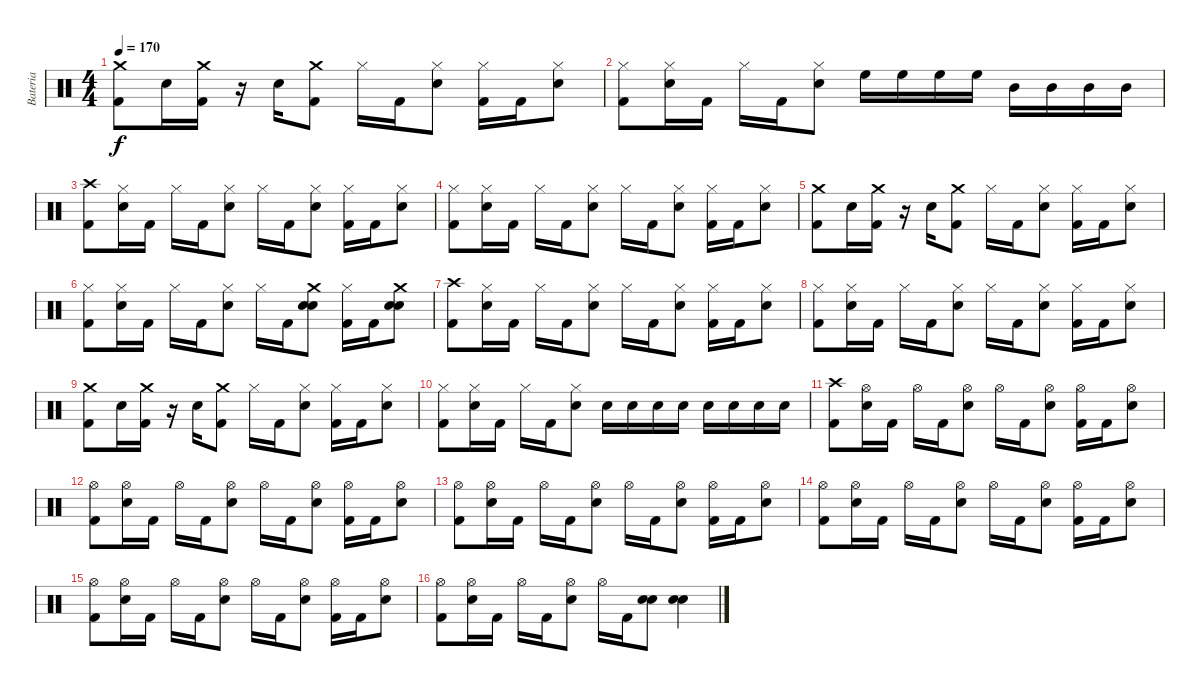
\track ("Bateria" "Bateria") {instrument percussion}
\staff {score}
\articulation defaults
\ts (4 4)
\tempo 170
\clef neutral
\ks c
("Crash medium (hit)" "Kick (hit) 2").8{dy f} "Snare (hit) 2".16 ("Crash medium (hit)" "Kick (hit) 2").16 r.16 "Snare (hit) 2".16 ("Crash medium (hit)" "Kick (hit) 2").8 "Hi-Hat (closed)".16 "Kick (hit) 2".16 ("Hi-Hat (closed)" "Snare (hit) 2").8 ("Hi-Hat (closed)" "Kick (hit) 2").16 "Kick (hit) 2".16 ("Hi-Hat (closed)" "Snare (hit) 2").8 |
("Hi-Hat (closed)" "Kick (hit) 2").8 ("Hi-Hat (closed)" "Snare (hit) 2").16 "Kick (hit) 2".16 "Hi-Hat (closed)".16 "Kick (hit) 2".16 ("Hi-Hat (closed)" "Snare (hit) 2").8 "High Floor Tom (hit)".16 "High Floor Tom (hit)".16 "High Floor Tom (hit)".16 "High Floor Tom (hit)".16 "Mid Tom (hit)".16 "Mid Tom (hit)".16 "Mid Tom (hit)".16 "Mid Tom (hit)".16 |
("Crash high (hit)" "Kick (hit) 2").8 ("Hi-Hat (closed)" "Snare (hit) 2").16 "Kick (hit) 2".16 "Hi-Hat (closed)".16 "Kick (hit) 2".16 ("Hi-Hat (closed)" "Snare (hit) 2").8 "Hi-Hat (closed)".16 "Kick (hit) 2".16 ("Hi-Hat (closed)" "Snare (hit) 2").8 ("Hi-Hat (closed)" "Kick (hit) 2").16 "Kick (hit) 2".16 ("Hi-Hat (closed)" "Snare (hit) 2").8 |
("Hi-Hat (closed)" "Kick (hit) 2").8 ("Hi-Hat (closed)" "Snare (hit) 2").16 "Kick (hit) 2".16 "Hi-Hat (closed)".16 "Kick (hit) 2".16 ("Hi-Hat (closed)" "Snare (hit) 2").8 "Hi-Hat (closed)".16 "Kick (hit) 2".16 ("Hi-Hat (closed)" "Snare (hit) 2").8 ("Hi-Hat (closed)" "Kick (hit) 2").16 "Kick (hit) 2".16 ("Hi-Hat (closed)" "Snare (hit) 2").8 |
("Crash medium (hit)" "Kick (hit) 2").8 "Snare (hit) 2".16 ("Crash medium (hit)" "Kick (hit) 2").16 r.16 "Snare (hit) 2".16 ("Crash medium (hit)" "Kick (hit) 2").8 "Hi-Hat (closed)".16 "Kick (hit) 2".16 ("Hi-Hat (closed)" "Snare (hit) 2").8 ("Hi-Hat (closed)" "Kick (hit) 2").16 "Kick (hit) 2".16 ("Hi-Hat (closed)" "Snare (hit) 2").8 |
("Hi-Hat (closed)" "Kick (hit) 2").8 ("Hi-Hat (closed)" "Snare (hit) 2").16 "Kick (hit) 2".16 "Hi-Hat (closed)".16 "Kick (hit) 2".16 ("Hi-Hat (closed)" "Snare (hit) 2").8 "Hi-Hat (closed)".16 "Kick (hit) 2".16 ("Crash medium (hit)" "Electric Snare (hit)" "Snare (hit) 2").8 ("Hi-Hat (closed)" "Kick (hit) 2").16 "Kick (hit) 2".16 ("Crash medium (hit)" "Electric Snare (hit)" "Snare (hit) 2").8 |
("Crash high (hit)" "Kick (hit) 2").8 ("Hi-Hat (closed)" "Snare (hit) 2").16 "Kick (hit) 2".16 "Hi-Hat (closed)".16 "Kick (hit) 2".16 ("Hi-Hat (closed)" "Snare (hit) 2").8 "Hi-Hat (closed)".16 "Kick (hit) 2".16 ("Hi-Hat (closed)" "Snare (hit) 2").8 ("Hi-Hat (closed)" "Kick (hit) 2").16 "Kick (hit) 2".16 ("Hi-Hat (closed)" "Snare (hit) 2").8 |
("Hi-Hat (closed)" "Kick (hit) 2").8 ("Hi-Hat (closed)" "Snare (hit) 2").16 "Kick (hit) 2".16 "Hi-Hat (closed)".16 "Kick (hit) 2".16 ("Hi-Hat (closed)" "Snare (hit) 2").8 "Hi-Hat (closed)".16 "Kick (hit) 2".16 ("Hi-Hat (closed)" "Snare (hit) 2").8 ("Hi-Hat (closed)" "Kick (hit) 2").16 "Kick (hit) 2".16 ("Hi-Hat (closed)" "Snare (hit) 2").8 |
("Crash medium (hit)" "Kick (hit) 2").8 "Snare (hit) 2".16 ("Crash medium (hit)" "Kick (hit) 2").16 r.16 "Snare (hit) 2".16 ("Crash medium (hit)" "Kick (hit) 2").8 "Hi-Hat (closed)".16 "Kick (hit) 2".16 ("Hi-Hat (closed)" "Snare (hit) 2").8 ("Hi-Hat (closed)" "Kick (hit) 2").16 "Kick (hit) 2".16 ("Hi-Hat (closed)" "Snare (hit) 2").8 |
("Hi-Hat (closed)" "Kick (hit) 2").8 ("Hi-Hat (closed)" "Snare (hit) 2").16 "Kick (hit) 2".16 "Hi-Hat (closed)".16 "Kick (hit) 2".16 ("Hi-Hat (closed)" "Snare (hit) 2").8 "Snare (hit) 2".16 "Snare (hit) 2".16 "Snare (hit) 2".16 "Snare (hit) 2".16 "Snare (hit) 2".16 "Snare (hit) 2".16 "Snare (hit) 2".16 "Snare (hit) 2".16 |
("Crash high (hit)" "Kick (hit) 2").8 ("Hi-Hat (open)" "Snare (hit) 2").16 "Kick (hit) 2".16 "Hi-Hat (open)".16 "Kick (hit) 2".16 ("Hi-Hat (open)" "Snare (hit) 2").8 "Hi-Hat (open)".16 "Kick (hit) 2".16 ("Hi-Hat (open)" "Snare (hit) 2").8 ("Hi-Hat (open)" "Kick (hit) 2").16 "Kick (hit) 2".16 ("Hi-Hat (open)" "Snare (hit) 2").8 |
("Hi-Hat (open)" "Kick (hit) 2").8 ("Hi-Hat (open)" "Snare (hit) 2").16 "Kick (hit) 2".16 "Hi-Hat (open)".16 "Kick (hit) 2".16 ("Hi-Hat (open)" "Snare (hit) 2").8 "Hi-Hat (open)".16 "Kick (hit) 2".16 ("Hi-Hat (open)" "Snare (hit) 2").8 ("Hi-Hat (open)" "Kick (hit) 2").16 "Kick (hit) 2".16 ("Hi-Hat (open)" "Snare (hit) 2").8 |
("Hi-Hat (open)" "Kick (hit) 2").8 ("Hi-Hat (open)" "Snare (hit) 2").16 "Kick (hit) 2".16 "Hi-Hat (open)".16 "Kick (hit) 2".16 ("Hi-Hat (open)" "Snare (hit) 2").8 "Hi-Hat (open)".16 "Kick (hit) 2".16 ("Hi-Hat (open)" "Snare (hit) 2").8 ("Hi-Hat (open)" "Kick (hit) 2").16 "Kick (hit) 2".16 ("Hi-Hat (open)" "Snare (hit) 2").8 |
("Hi-Hat (open)" "Kick (hit) 2").8 ("Hi-Hat (open)" "Snare (hit) 2").16 "Kick (hit) 2".16 "Hi-Hat (open)".16 "Kick (hit) 2".16 ("Hi-Hat (open)" "Snare (hit) 2").8 "Hi-Hat (open)".16 "Kick (hit) 2".16 ("Hi-Hat (open)" "Snare (hit) 2").8 ("Hi-Hat (open)" "Kick (hit) 2").16 "Kick (hit) 2".16 ("Hi-Hat (open)" "Snare (hit) 2").8 |
("Hi-Hat (open)" "Kick (hit) 2").8 ("Hi-Hat (open)" "Snare (hit) 2").16 "Kick (hit) 2".16 "Hi-Hat (open)".16 "Kick (hit) 2".16 ("Hi-Hat (open)" "Snare (hit) 2").8 "Hi-Hat (open)".16 "Kick (hit) 2".16 ("Hi-Hat (open)" "Snare (hit) 2").8 ("Hi-Hat (open)" "Kick (hit) 2").16 "Kick (hit) 2".16 ("Hi-Hat (open)" "Snare (hit) 2").8 |
("Hi-Hat (open)" "Kick (hit) 2").8 ("Hi-Hat (open)" "Snare (hit) 2").16 "Kick (hit) 2".16 "Hi-Hat (open)".16 "Kick (hit) 2".16 ("Hi-Hat (open)" "Snare (hit) 2").8 "Hi-Hat (open)".16 "Kick (hit) 2".16 ("Snare (hit) 2" "Snare (hit) 2").8 ("Snare (hit) 2" "Snare (hit) 2").4
